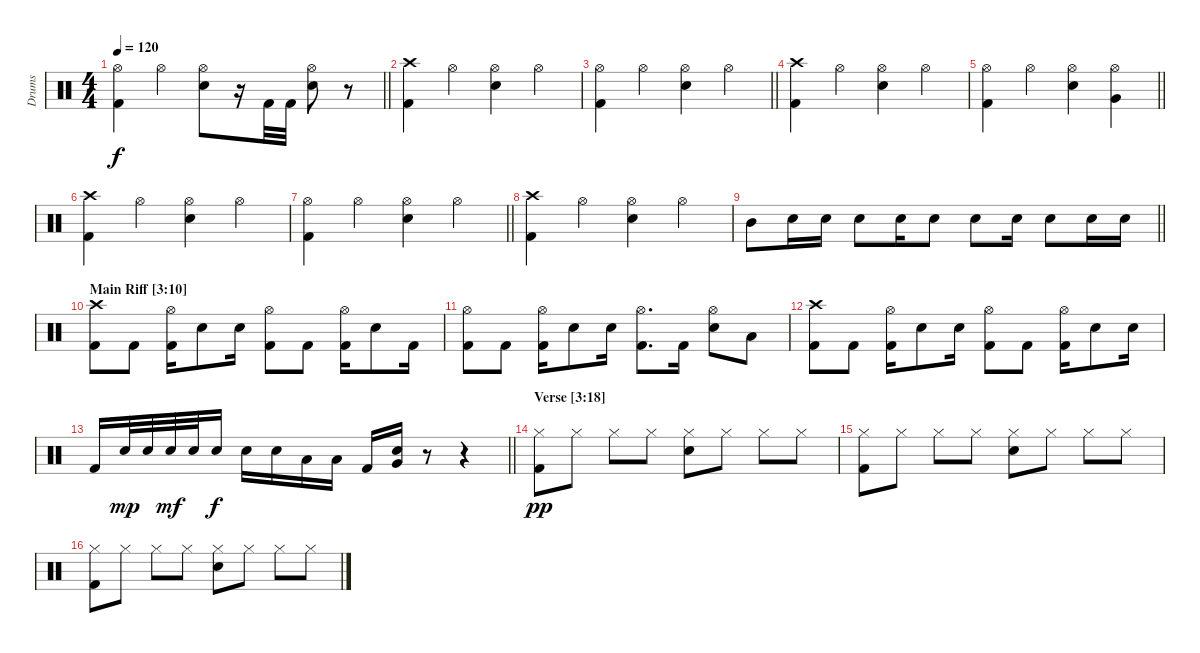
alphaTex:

\track ("Drums" "Drums") {instrument percussion}
\staff {score}
\articulation defaults
\ts (4 4)
\tempo 120
\clef neutral
\barLineRight lightlight
\ks c
("Hi-Hat (open)" "Kick (hit) 2").4{dy f} "Hi-Hat (open)".4 ("Hi-Hat (open)" "Snare (hit) 2").8 r.16 "Kick (hit) 2".32 "Kick (hit) 2".32 ("Hi-Hat (open)" "Snare (hit) 2").8 r.8 |
("Crash high (hit)" "Kick (hit) 2").4 "Hi-Hat (open)".4 ("Hi-Hat (open)" "Snare (hit) 2").4 "Hi-Hat (open)".4 |
\barLineRight lightlight
("Hi-Hat (open)" "Kick (hit) 2").4 "Hi-Hat (open)".4 ("Hi-Hat (open)" "Snare (hit) 2").4 "Hi-Hat (open)".4 |
("Crash high (hit)" "Kick (hit) 2").4 "Hi-Hat (open)".4 ("Hi-Hat (open)" "Snare (hit) 2").4 "Hi-Hat (open)".4 |
\barLineRight lightlight
("Hi-Hat (open)" "Kick (hit) 2").4 "Hi-Hat (open)".4 ("Hi-Hat (open)" "Snare (hit) 2").4 ("Hi-Hat (open)" "Very Low Tom (hit)").4 |
("Crash high (hit)" "Kick (hit) 2").4 "Hi-Hat (open)".4 ("Hi-Hat (open)" "Snare (hit) 2").4 "Hi-Hat (open)".4 |
\barLineRight lightlight
("Hi-Hat (open)" "Kick (hit) 2").4 "Hi-Hat (open)".4 ("Hi-Hat (open)" "Snare (hit) 2").4 "Hi-Hat (open)".4 |
("Crash high (hit)" "Kick (hit) 2").4 "Hi-Hat (open)".4 ("Hi-Hat (open)" "Snare (hit) 2").4 "Hi-Hat (open)".4 |
\barLineRight lightlight "Mid Tom (hit)".8 "Snare (hit) 2".16 "Snare (hit) 2".16 "Snare (hit) 2".8 "Snare (hit) 2".16 "Snare (hit) 2".8 "Snare (hit) 2".8 "Snare (hit) 2".16 "Snare (hit) 2".8 "Snare (hit) 2".16 "Snare (hit) 2".16
|
\section ("" "Main Riff [3:10]")
("Crash high (hit)" "Kick (hit) 2").8 "Kick (hit) 2".8 ("Hi-Hat (open)" "Kick (hit) 2").16 "Snare (hit) 2".8 "Snare (hit) 2".16 ("Hi-Hat (open)" "Kick (hit) 2").8 "Kick (hit) 2".8 ("Hi-Hat (open)" "Kick (hit) 2").16 "Snare (hit) 2".8 "Kick (hit) 2".16 |
("Hi-Hat (open)" "Kick (hit) 2").8 "Kick (hit) 2".8 ("Hi-Hat (open)" "Kick (hit) 2").16 "Snare (hit) 2".8 "Snare (hit) 2".16 ("Hi-Hat (open)" "Kick (hit) 2").8{d} "Kick (hit) 2".16 ("Hi-Hat (open)" "Snare (hit) 2").8 "Low Tom (hit)".8 |
("Crash high (hit)" "Kick (hit) 2").8 "Kick (hit) 2".8 ("Hi-Hat (open)" "Kick (hit) 2").16 "Snare (hit) 2".8 "Snare (hit) 2".16 ("Hi-Hat (open)" "Kick (hit) 2").8 "Kick (hit) 2".8 ("Hi-Hat (open)" "Kick (hit) 2").16 "Snare (hit) 2".8 "Snare (hit) 2".16 |
\barLineRight lightlight "Kick (hit) 2".16 "Snare (hit) 2".32{dy mp} "Snare (hit) 2".32 "Snare (hit) 2".32{dy mf} "Snare (hit) 2".32 "Snare (hit) 2".16{dy f} "Snare (hit) 2".16 "Snare (hit) 2".16 "Low Tom (hit)".16 "Low Tom (hit)".16 "Kick (hit) 2".16
("Very Low Tom (hit)" "Snare (hit) 2").16 r.8 r.4 |
\section ("" "Verse [3:18]")
("Hi-Hat (closed)" "Kick (hit) 2").8{dy pp} "Hi-Hat (closed)".8 "Hi-Hat (closed)".8 "Hi-Hat (closed)".8 ("Hi-Hat (closed)" "Snare (hit) 2").8 "Hi-Hat (closed)".8 "Hi-Hat (closed)".8 "Hi-Hat (closed)".8 |
("Hi-Hat (closed)" "Kick (hit) 2").8 "Hi-Hat (closed)".8 "Hi-Hat (closed)".8 "Hi-Hat (closed)".8 ("Hi-Hat (closed)" "Snare (hit) 2").8 "Hi-Hat (closed)".8 "Hi-Hat (closed)".8 "Hi-Hat (closed)".8 |
("Hi-Hat (closed)" "Kick (hit) 2").8 "Hi-Hat (closed)".8 "Hi-Hat (closed)".8 "Hi-Hat (closed)".8 ("Hi-Hat (closed)" "Snare (hit) 2").8 "Hi-Hat (closed)".8 "Hi-Hat (closed)".8 "Hi-Hat (closed)".8
